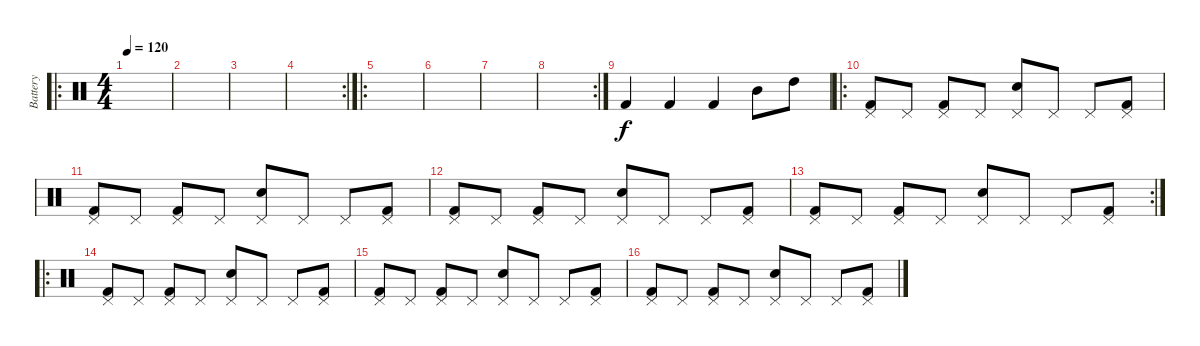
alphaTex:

\track ("Battery" "Battery") {instrument percussion}
\staff {score}
\articulation defaults
\ro
\ts (4 4)
\tempo 120
\clef neutral
\ks c
|
|
|
\rc 2
|
\ro
|
|
|
\rc 2
|
"Kick (hit) 2".4 "Kick (hit) 2".4 "Kick (hit) 2".4 "Mid Tom (hit)".8 "High Tom (hit)".8 |
\ro
("Pedal Hi-Hat (hit)" "Kick (hit) 2").8 "Pedal Hi-Hat (hit)".8 ("Pedal Hi-Hat (hit)" "Kick (hit) 2").8 "Pedal Hi-Hat (hit)".8 ("Pedal Hi-Hat (hit)" "Electric Snare (hit)").8 "Pedal Hi-Hat (hit)".8 "Pedal Hi-Hat (hit)".8 ("Pedal Hi-Hat (hit)" "Kick (hit) 2").8 |
("Pedal Hi-Hat (hit)" "Kick (hit) 2").8 "Pedal Hi-Hat (hit)".8 ("Pedal Hi-Hat (hit)" "Kick (hit) 2").8 "Pedal Hi-Hat (hit)".8 ("Pedal Hi-Hat (hit)" "Electric Snare (hit)").8 "Pedal Hi-Hat (hit)".8 "Pedal Hi-Hat (hit)".8 ("Pedal Hi-Hat (hit)" "Kick (hit) 2").8 |
("Pedal Hi-Hat (hit)" "Kick (hit) 2").8 "Pedal Hi-Hat (hit)".8 ("Pedal Hi-Hat (hit)" "Kick (hit) 2").8 "Pedal Hi-Hat (hit)".8 ("Pedal Hi-Hat (hit)" "Electric Snare (hit)").8 "Pedal Hi-Hat (hit)".8 "Pedal Hi-Hat (hit)".8 ("Pedal Hi-Hat (hit)" "Kick (hit) 2").8 |
\rc 2
("Pedal Hi-Hat (hit)" "Kick (hit) 2").8 "Pedal Hi-Hat (hit)".8 ("Pedal Hi-Hat (hit)" "Kick (hit) 2").8 "Pedal Hi-Hat (hit)".8 ("Pedal Hi-Hat (hit)" "Electric Snare (hit)").8 "Pedal Hi-Hat (hit)".8 "Pedal Hi-Hat (hit)".8 ("Pedal Hi-Hat (hit)" "Kick (hit) 2").8 |
\ro
("Pedal Hi-Hat (hit)" "Kick (hit) 2").8 "Pedal Hi-Hat (hit)".8 ("Pedal Hi-Hat (hit)" "Kick (hit) 2").8 "Pedal Hi-Hat (hit)".8 ("Pedal Hi-Hat (hit)" "Electric Snare (hit)").8 "Pedal Hi-Hat (hit)".8 "Pedal Hi-Hat (hit)".8 ("Pedal Hi-Hat (hit)" "Kick (hit) 2").8 |
("Pedal Hi-Hat (hit)" "Kick (hit) 2").8 "Pedal Hi-Hat (hit)".8 ("Pedal Hi-Hat (hit)" "Kick (hit) 2").8 "Pedal Hi-Hat (hit)".8 ("Pedal Hi-Hat (hit)" "Electric Snare (hit)").8 "Pedal Hi-Hat (hit)".8 "Pedal Hi-Hat (hit)".8 ("Pedal Hi-Hat (hit)" "Kick (hit) 2").8 |
("Pedal Hi-Hat (hit)" "Kick (hit) 2").8 "Pedal Hi-Hat (hit)".8 ("Pedal Hi-Hat (hit)" "Kick (hit) 2").8 "Pedal Hi-Hat (hit)".8 ("Pedal Hi-Hat (hit)" "Electric Snare (hit)").8 "Pedal Hi-Hat (hit)".8 "Pedal Hi-Hat (hit)".8 ("Pedal Hi-Hat (hit)" "Kick (hit) 2").8
